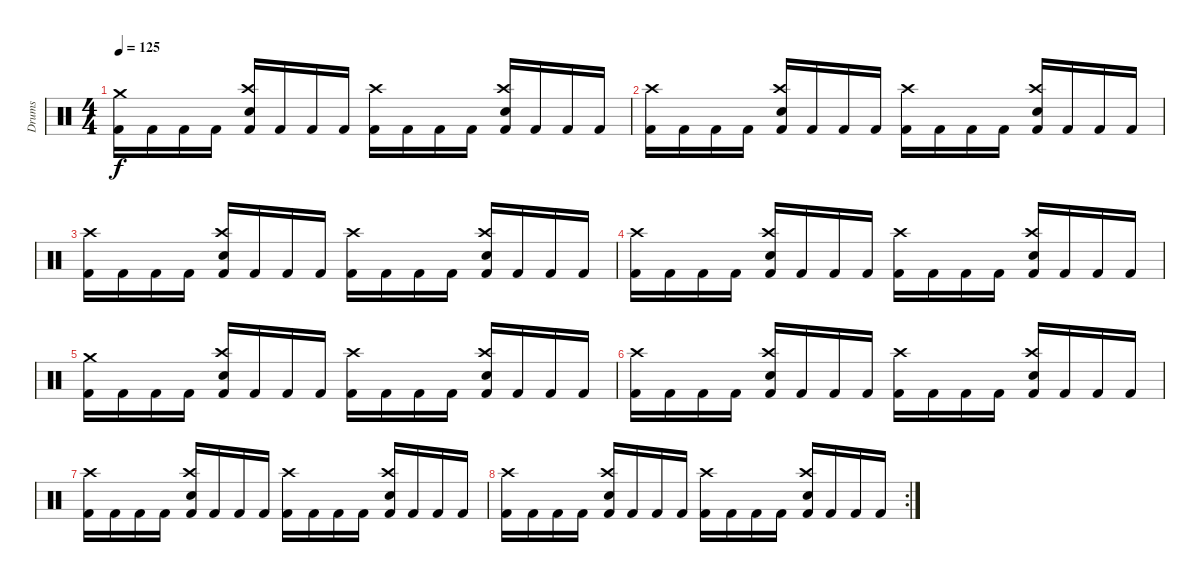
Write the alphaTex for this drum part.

\track ("Drums" "Drums") {instrument percussion}
\staff {score}
\articulation defaults
\ts (4 4)
\tempo 125
\clef neutral
\ks c
("Crash medium (hit)" "Kick (hit) 2").16{dy f} "Kick (hit) 2".16 "Kick (hit) 2".16 "Kick (hit) 2".16 ("Crash high (hit)" "Electric Snare (hit)" "Kick (hit) 2").16 "Kick (hit) 2".16 "Kick (hit) 2".16 "Kick (hit) 2".16 ("Crash high (hit)" "Kick (hit) 2").16 "Kick (hit) 2".16 "Kick (hit) 2".16 "Kick (hit) 2".16 ("Crash high (hit)" "Electric Snare (hit)" "Kick (hit) 2").16 "Kick (hit) 2".16 "Kick (hit) 2".16 "Kick (hit) 2".16 |
("Crash high (hit)" "Kick (hit) 2").16 "Kick (hit) 2".16 "Kick (hit) 2".16 "Kick (hit) 2".16 ("Crash high (hit)" "Electric Snare (hit)" "Kick (hit) 2").16 "Kick (hit) 2".16 "Kick (hit) 2".16 "Kick (hit) 2".16 ("Crash high (hit)" "Kick (hit) 2").16 "Kick (hit) 2".16 "Kick (hit) 2".16 "Kick (hit) 2".16 ("Crash high (hit)" "Electric Snare (hit)" "Kick (hit) 2").16 "Kick (hit) 2".16 "Kick (hit) 2".16 "Kick (hit) 2".16 |
("Crash high (hit)" "Kick (hit) 2").16 "Kick (hit) 2".16 "Kick (hit) 2".16 "Kick (hit) 2".16 ("Crash high (hit)" "Electric Snare (hit)" "Kick (hit) 2").16 "Kick (hit) 2".16 "Kick (hit) 2".16 "Kick (hit) 2".16 ("Crash high (hit)" "Kick (hit) 2").16 "Kick (hit) 2".16 "Kick (hit) 2".16 "Kick (hit) 2".16 ("Crash high (hit)" "Electric Snare (hit)" "Kick (hit) 2").16 "Kick (hit) 2".16 "Kick (hit) 2".16 "Kick (hit) 2".16 |
("Crash high (hit)" "Kick (hit) 2").16 "Kick (hit) 2".16 "Kick (hit) 2".16 "Kick (hit) 2".16 ("Crash high (hit)" "Electric Snare (hit)" "Kick (hit) 2").16 "Kick (hit) 2".16 "Kick (hit) 2".16 "Kick (hit) 2".16 ("Crash high (hit)" "Kick (hit) 2").16 "Kick (hit) 2".16 "Kick (hit) 2".16 "Kick (hit) 2".16 ("Crash high (hit)" "Electric Snare (hit)" "Kick (hit) 2").16 "Kick (hit) 2".16 "Kick (hit) 2".16 "Kick (hit) 2".16 |
("Crash medium (hit)" "Kick (hit) 2").16 "Kick (hit) 2".16 "Kick (hit) 2".16 "Kick (hit) 2".16 ("Crash high (hit)" "Electric Snare (hit)" "Kick (hit) 2").16 "Kick (hit) 2".16 "Kick (hit) 2".16 "Kick (hit) 2".16 ("Crash high (hit)" "Kick (hit) 2").16 "Kick (hit) 2".16 "Kick (hit) 2".16 "Kick (hit) 2".16 ("Crash high (hit)" "Electric Snare (hit)" "Kick (hit) 2").16 "Kick (hit) 2".16 "Kick (hit) 2".16 "Kick (hit) 2".16 |
("Crash high (hit)" "Kick (hit) 2").16 "Kick (hit) 2".16 "Kick (hit) 2".16 "Kick (hit) 2".16 ("Crash high (hit)" "Electric Snare (hit)" "Kick (hit) 2").16 "Kick (hit) 2".16 "Kick (hit) 2".16 "Kick (hit) 2".16 ("Crash high (hit)" "Kick (hit) 2").16 "Kick (hit) 2".16 "Kick (hit) 2".16 "Kick (hit) 2".16 ("Crash high (hit)" "Electric Snare (hit)" "Kick (hit) 2").16 "Kick (hit) 2".16 "Kick (hit) 2".16 "Kick (hit) 2".16 |
("Crash high (hit)" "Kick (hit) 2").16 "Kick (hit) 2".16 "Kick (hit) 2".16 "Kick (hit) 2".16 ("Crash high (hit)" "Electric Snare (hit)" "Kick (hit) 2").16 "Kick (hit) 2".16 "Kick (hit) 2".16 "Kick (hit) 2".16 ("Crash high (hit)" "Kick (hit) 2").16 "Kick (hit) 2".16 "Kick (hit) 2".16 "Kick (hit) 2".16 ("Crash high (hit)" "Electric Snare (hit)" "Kick (hit) 2").16 "Kick (hit) 2".16 "Kick (hit) 2".16 "Kick (hit) 2".16 |
\rc 2
("Crash high (hit)" "Kick (hit) 2").16 "Kick (hit) 2".16 "Kick (hit) 2".16 "Kick (hit) 2".16 ("Crash high (hit)" "Electric Snare (hit)" "Kick (hit) 2").16 "Kick (hit) 2".16 "Kick (hit) 2".16 "Kick (hit) 2".16 ("Crash high (hit)" "Kick (hit) 2").16 "Kick (hit) 2".16 "Kick (hit) 2".16 "Kick (hit) 2".16 ("Crash high (hit)" "Electric Snare (hit)" "Kick (hit) 2").16 "Kick (hit) 2".16 "Kick (hit) 2".16 "Kick (hit) 2".16
